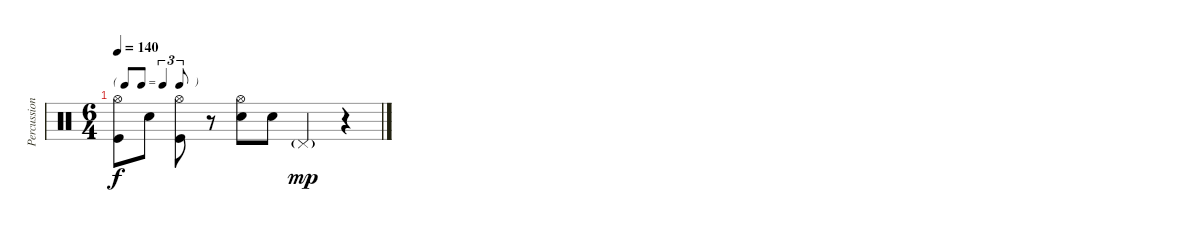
\track ("Percussion" "Percussion") {instrument percussion}
\staff {score}
\articulation defaults
\ts (6 4)
\tf triplet8th
\tempo 140
\clef neutral
\ks c
("Hi-Hat (open)" "Kick (hit)").8{dy f} "Electric Snare (hit)".8 ("Hi-Hat (open)" "Kick (hit)").8 r.8 ("Hi-Hat (open)" "Electric Snare (hit)").8 "Electric Snare (hit)".8 "Pedal Hi-Hat (hit)"{g}.2{dy mp} r.4
